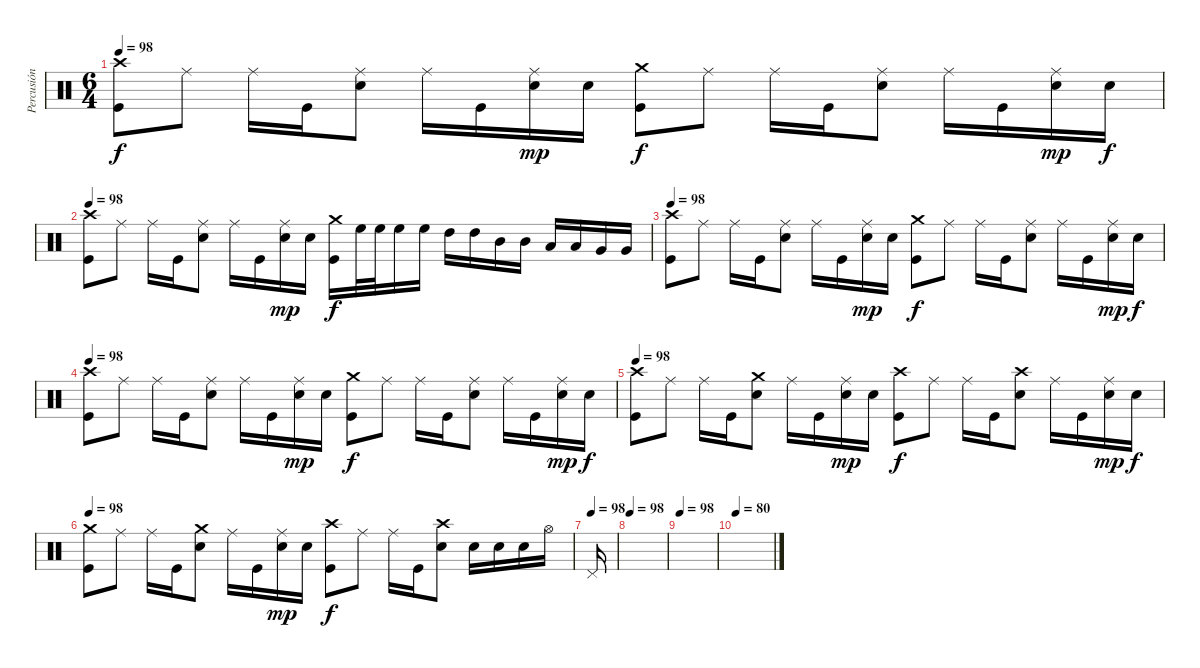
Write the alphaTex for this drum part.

\track ("Percusión" "Percusión") {instrument percussion}
\staff {score}
\articulation defaults
\ts (6 4)
\tempo 98
\clef neutral
\ks c
("Crash high (hit)" "Kick (hit)").8{dy f} "Ride (middle)".8 "Ride (middle)".16 "Kick (hit)".16 ("Ride (middle)" "Electric Snare (hit)").8 "Ride (middle)".16 "Kick (hit)".16 ("Ride (middle)" "Electric Snare (hit)").16{dy mp} "Electric Snare (hit)".16 ("Crash medium (hit)" "Kick (hit)").8{dy f} "Ride (middle)".8 "Ride (middle)".16 "Kick (hit)".16 ("Ride (middle)" "Electric Snare (hit)").8 "Ride (middle)".16 "Kick (hit)".16 ("Ride (middle)" "Electric Snare (hit)").16{dy mp} "Electric Snare (hit)".16{dy f} |
\tempo 98
("Crash high (hit)" "Kick (hit)").8 "Ride (middle)".8 "Ride (middle)".16 "Kick (hit)".16 ("Ride (middle)" "Electric Snare (hit)").8 "Ride (middle)".16 "Kick (hit)".16 ("Ride (middle)" "Electric Snare (hit)").16{dy mp} "Electric Snare (hit)".16 ("Crash medium (hit)" "Kick (hit)").16{dy f} "High Floor Tom (hit)".32 "High Floor Tom (hit)".32 "High Floor Tom (hit)".16 "High Floor Tom (hit)".16 "High Tom (hit)".16 "High Tom (hit)".16 "Mid Tom (hit)".16 "Mid Tom (hit)".16 "Low Tom (hit)".16 "Low Tom (hit)".16 "Very Low Tom (hit)".16 "Very Low Tom (hit)".16 |
\tempo 98
("Crash high (hit)" "Kick (hit)").8 "Ride (middle)".8 "Ride (middle)".16 "Kick (hit)".16 ("Ride (middle)" "Electric Snare (hit)").8 "Ride (middle)".16 "Kick (hit)".16 ("Ride (middle)" "Electric Snare (hit)").16{dy mp} "Electric Snare (hit)".16 ("Crash medium (hit)" "Kick (hit)").8{dy f} "Ride (middle)".8 "Ride (middle)".16 "Kick (hit)".16 ("Ride (middle)" "Electric Snare (hit)").8 "Ride (middle)".16 "Kick (hit)".16 ("Ride (middle)" "Electric Snare (hit)").16{dy mp} "Electric Snare (hit)".16{dy f} |
\tempo 98
("Crash high (hit)" "Kick (hit)").8 "Ride (middle)".8 "Ride (middle)".16 "Kick (hit)".16 ("Ride (middle)" "Electric Snare (hit)").8 "Ride (middle)".16 "Kick (hit)".16 ("Ride (middle)" "Electric Snare (hit)").16{dy mp} "Electric Snare (hit)".16 ("Crash medium (hit)" "Kick (hit)").8{dy f} "Ride (middle)".8 "Ride (middle)".16 "Kick (hit)".16 ("Ride (middle)" "Electric Snare (hit)").8 "Ride (middle)".16 "Kick (hit)".16 ("Ride (middle)" "Electric Snare (hit)").16{dy mp} "Electric Snare (hit)".16{dy f} |
\tempo 98
("Crash high (hit)" "Kick (hit)").8 "Ride (middle)".8 "Ride (middle)".16 "Kick (hit)".16 ("Crash medium (hit)" "Electric Snare (hit)").8 "Ride (middle)".16 "Kick (hit)".16 ("Ride (middle)" "Electric Snare (hit)").16{dy mp} "Electric Snare (hit)".16 ("Crash high (hit)" "Kick (hit)").8{dy f} "Ride (middle)".8 "Ride (middle)".16 "Kick (hit)".16 ("Crash high (hit)" "Electric Snare (hit)").8 "Ride (middle)".16 "Kick (hit)".16 ("Ride (middle)" "Electric Snare (hit)").16{dy mp} "Electric Snare (hit)".16{dy f} |
\tempo 98
("Crash medium (hit)" "Kick (hit)").8 "Ride (middle)".8 "Ride (middle)".16 "Kick (hit)".16 ("Crash medium (hit)" "Electric Snare (hit)").8 "Ride (middle)".16 "Kick (hit)".16 ("Ride (middle)" "Electric Snare (hit)").16{dy mp} "Electric Snare (hit)".16 ("Crash high (hit)" "Kick (hit)").8{dy f} "Ride (middle)".8 "Ride (middle)".16 "Kick (hit)".16 ("Crash high (hit)" "Electric Snare (hit)").8 "Electric Snare (hit)".16 "Electric Snare (hit)".16 "Electric Snare (hit)".16 "Hi-Hat (open)".16 |
\tempo (98)
"Pedal Hi-Hat (hit)".16 |
\tempo 98
|
\tempo 98
|
\tempo 80
